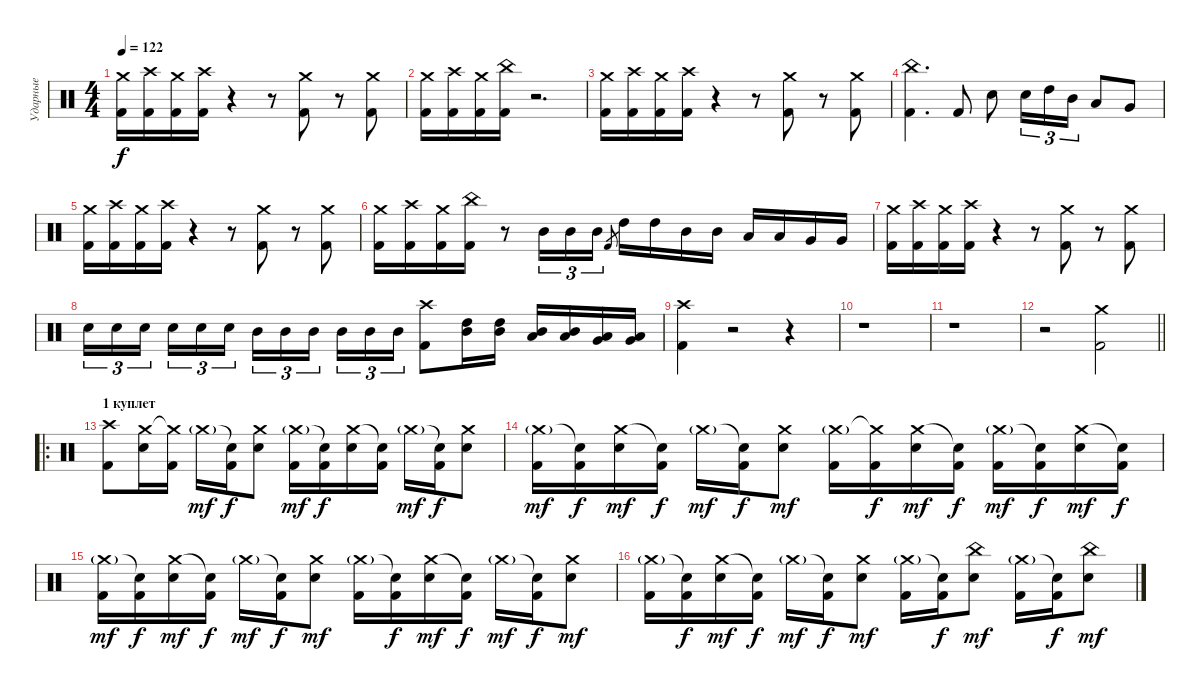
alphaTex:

\track ("Ударные" "Ударные") {instrument percussion}
\staff {score}
\articulation defaults
\ts (4 4)
\tempo 122
\clef neutral
\ks c
("Crash medium (hit)" "Kick (hit) 2").16{dy f} ("Crash high (hit)" "Kick (hit) 2").16 ("Crash medium (hit)" "Kick (hit) 2").16 ("Crash high (hit)" "Kick (hit) 2").16 r.4 r.8 ("Crash medium (hit)" "Kick (hit) 2").8 r.8 ("Crash medium (hit)" "Kick (hit) 2").8 |
("Crash medium (hit)" "Kick (hit) 2").16 ("Crash high (hit)" "Kick (hit) 2").16 ("Crash medium (hit)" "Kick (hit) 2").16 ("China (hit)" "Kick (hit) 2").16 r.2{d} |
("Crash medium (hit)" "Kick (hit) 2").16 ("Crash high (hit)" "Kick (hit) 2").16 ("Crash medium (hit)" "Kick (hit) 2").16 ("Crash high (hit)" "Kick (hit) 2").16 r.4 r.8 ("Crash medium (hit)" "Kick (hit) 2").8 r.8 ("Crash medium (hit)" "Kick (hit) 2").8 |
("China (hit)" "Kick (hit) 2").4{d} "Kick (hit) 2".8 "Electric Snare (hit)".8 "Electric Snare (hit)".16{tu (3 2)} "High Tom (hit)".16{tu (3 2)} "Mid Tom (hit)".16{tu (3 2)} "Low Tom (hit)".8 "Very Low Tom (hit)".8 |
("Crash medium (hit)" "Kick (hit) 2").16 ("Crash high (hit)" "Kick (hit) 2").16 ("Crash medium (hit)" "Kick (hit) 2").16 ("Crash high (hit)" "Kick (hit) 2").16 r.4 r.8 ("Crash medium (hit)" "Kick (hit) 2").8 r.8 ("Crash medium (hit)" "Kick (hit) 2").8 |
("Crash medium (hit)" "Kick (hit) 2").16 ("Crash high (hit)" "Kick (hit) 2").16 ("Crash medium (hit)" "Kick (hit) 2").16 ("China (hit)" "Kick (hit) 2").16 r.8 "Mid Tom (hit)".16{tu (3 2)} "Mid Tom (hit)".16{tu (3 2)} "Mid Tom (hit)".16{tu (3 2)} "Kick (hit) 2".8{gr} "High Tom (hit)".16 "High Tom (hit)".16 "Mid Tom (hit)".16 "Mid Tom (hit)".16 "Low Tom (hit)".16 "Low Tom (hit)".16 "Very Low Tom (hit)".16 "Very Low Tom (hit)".16 |
("Crash medium (hit)" "Kick (hit) 2").16 ("Crash high (hit)" "Kick (hit) 2").16 ("Crash medium (hit)" "Kick (hit) 2").16 ("Crash high (hit)" "Kick (hit) 2").16 r.4 r.8 ("Crash medium (hit)" "Kick (hit) 2").8 r.8 ("Crash medium (hit)" "Kick (hit) 2").8 |
"Electric Snare (hit)".16{tu (3 2)} "Electric Snare (hit)".16{tu (3 2)} "Electric Snare (hit)".16{tu (3 2) beam splitsecondary} "Electric Snare (hit)".16{tu (3 2)} "Electric Snare (hit)".16{tu (3 2)} "Electric Snare (hit)".16{tu (3 2)} "Mid Tom (hit)".16{tu (3 2)} "Mid Tom (hit)".16{tu (3 2)} "Mid Tom (hit)".16{tu (3 2) beam splitsecondary} "Mid Tom (hit)".16{tu (3 2)} "Mid Tom (hit)".16{tu (3 2)} "Mid Tom (hit)".16{tu (3 2)} ("Crash high (hit)" "Kick (hit) 2").8 ("High Tom (hit)" "Mid Tom (hit)").16 ("High Tom (hit)" "Mid Tom (hit)").16 ("Mid Tom (hit)" "Low Tom (hit)").16 ("Mid Tom (hit)" "Low Tom (hit)").16 ("Low Tom (hit)" "Very Low Tom (hit)").16 ("Low Tom (hit)" "Very Low Tom (hit)").16 |
("Crash high (hit)" "Kick (hit) 2").4 r.2 r.4 |
r.1 |
r.1 |
\barLineRight lightlight
r.2 ("Crash medium (hit)" "Kick (hit) 2").2 |
\ro
\section ("" "1 куплет")
("Crash high (hit)" "Kick (hit) 2").8 ("Crash medium (hit)" "Electric Snare (hit)").16 ("Crash medium (hit)"{t} "Kick (hit) 2").16 "Crash medium (hit)"{g}.16{dy mf} ("Snare (hit)"{t} "Kick (hit) 2").16{dy f} ("Crash medium (hit)" "Electric Snare (hit)").8 ("Crash medium (hit)"{g} "Kick (hit) 2").16{dy mf} ("Snare (hit)"{t} "Kick (hit) 2").16{dy f} ("Crash medium (hit)" "Electric Snare (hit)").16 ("Snare (hit)"{t} "Kick (hit) 2").16 "Crash medium (hit)"{g}.16{dy mf} ("Snare (hit)"{t} "Kick (hit) 2").16{dy f} ("Crash medium (hit)" "Electric Snare (hit)").8 |
("Crash medium (hit)"{g} "Kick (hit) 2").16{dy mf} ("Snare (hit)"{t} "Kick (hit) 2").16{dy f} ("Crash medium (hit)" "Electric Snare (hit)").16{dy mf} ("Snare (hit)"{t} "Kick (hit) 2").16{dy f} "Crash medium (hit)"{g}.16{dy mf} ("Snare (hit)"{t} "Kick (hit) 2").16{dy f} ("Crash medium (hit)" "Electric Snare (hit)").8{dy mf} ("Crash medium (hit)"{g} "Kick (hit) 2").16 ("Crash medium (hit)"{t} "Kick (hit) 2").16{dy f} ("Crash medium (hit)" "Electric Snare (hit)").16{dy mf} ("Snare (hit)"{t} "Kick (hit) 2").16{dy f} ("Crash medium (hit)"{g} "Kick (hit) 2").16{dy mf} ("Snare (hit)"{t} "Kick (hit) 2").16{dy f} ("Crash medium (hit)" "Electric Snare (hit)").16{dy mf} ("Snare (hit)"{t} "Kick (hit) 2").16{dy f} |
("Crash medium (hit)"{g} "Kick (hit) 2").16{dy mf} ("Snare (hit)"{t} "Kick (hit) 2").16{dy f} ("Crash medium (hit)" "Electric Snare (hit)").16{dy mf} ("Snare (hit)"{t} "Kick (hit) 2").16{dy f} "Crash medium (hit)"{g}.16{dy mf} ("Snare (hit)"{t} "Kick (hit) 2").16{dy f} ("Crash medium (hit)" "Electric Snare (hit)").8{dy mf} ("Crash medium (hit)"{g} "Kick (hit) 2").16 ("Snare (hit)"{t} "Kick (hit) 2").16{dy f} ("Crash medium (hit)" "Electric Snare (hit)").16{dy mf} ("Snare (hit)"{t} "Kick (hit) 2").16{dy f} "Crash medium (hit)"{g}.16{dy mf} ("Snare (hit)"{t} "Kick (hit) 2").16{dy f} ("Crash medium (hit)" "Electric Snare (hit)").8{dy mf} |
("Crash medium (hit)"{g} "Kick (hit) 2").16 ("Snare (hit)"{t} "Kick (hit) 2").16{dy f} ("Crash medium (hit)" "Electric Snare (hit)").16{dy mf} ("Snare (hit)"{t} "Kick (hit) 2").16{dy f} "Crash medium (hit)"{g}.16{dy mf} ("Snare (hit)"{t} "Kick (hit) 2").16{dy f} ("Crash medium (hit)" "Electric Snare (hit)").8{dy mf} ("Crash medium (hit)"{g} "Kick (hit) 2").16 ("Snare (hit)"{t} "Kick (hit) 2").16{dy f} ("China (hit)" "Electric Snare (hit)").8{dy mf} ("Crash medium (hit)"{g} "Kick (hit) 2").16 ("Snare (hit)"{t} "Kick (hit) 2").16{dy f} ("China (hit)" "Electric Snare (hit)").8{dy mf}
